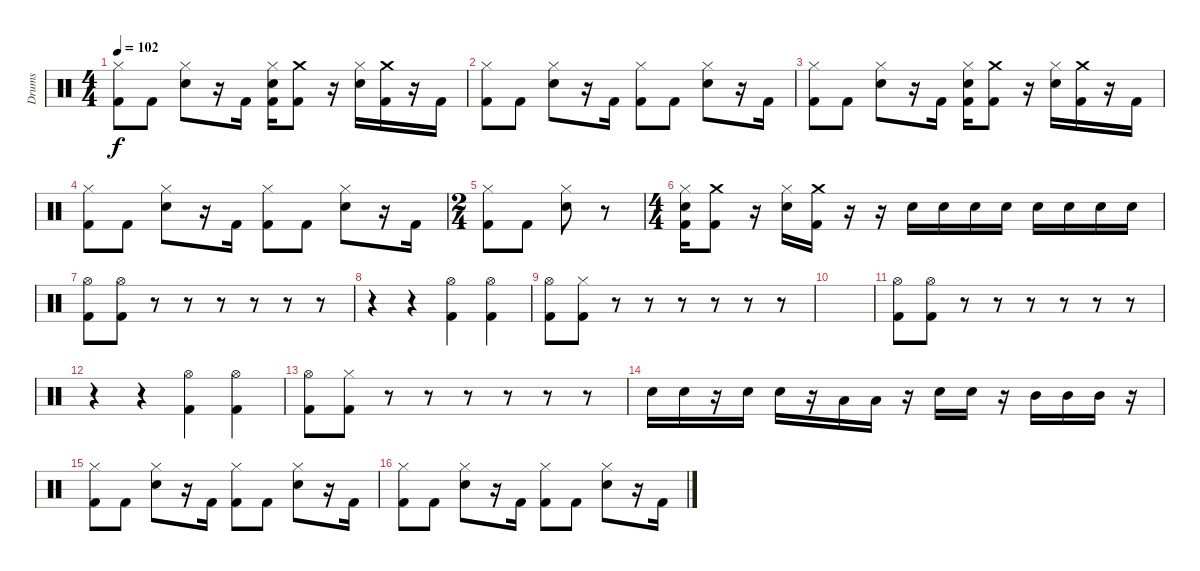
\track ("Drums" "Drums") {instrument percussion}
\staff {score}
\articulation defaults
\ts (4 4)
\tempo 102
\clef neutral
\ks c
("Hi-Hat (closed)" "Kick (hit) 2").8{dy f} "Kick (hit) 2".8 ("Hi-Hat (closed)" "Snare (hit) 2").8 r.16 "Kick (hit) 2".16 ("Hi-Hat (closed)" "Snare (hit) 2" "Kick (hit) 2").16 ("Crash medium (hit)" "Kick (hit) 2").8 r.16 ("Hi-Hat (closed)" "Snare (hit) 2").16 ("Crash medium (hit)" "Kick (hit) 2").16 r.16 "Kick (hit) 2".16 |
("Hi-Hat (closed)" "Kick (hit) 2").8 "Kick (hit) 2".8 ("Hi-Hat (closed)" "Snare (hit) 2").8 r.16 "Kick (hit) 2".16 ("Hi-Hat (closed)" "Kick (hit) 2").8 "Kick (hit) 2".8 ("Hi-Hat (closed)" "Snare (hit) 2").8 r.16 "Kick (hit) 2".16 |
("Hi-Hat (closed)" "Kick (hit) 2").8 "Kick (hit) 2".8 ("Hi-Hat (closed)" "Snare (hit) 2").8 r.16 "Kick (hit) 2".16 ("Hi-Hat (closed)" "Snare (hit) 2" "Kick (hit) 2").16 ("Crash medium (hit)" "Kick (hit) 2").8 r.16 ("Hi-Hat (closed)" "Snare (hit) 2").16 ("Crash medium (hit)" "Kick (hit) 2").16 r.16 "Kick (hit) 2".16 |
("Hi-Hat (closed)" "Kick (hit) 2").8 "Kick (hit) 2".8 ("Hi-Hat (closed)" "Snare (hit) 2").8 r.16 "Kick (hit) 2".16 ("Hi-Hat (closed)" "Kick (hit) 2").8 "Kick (hit) 2".8 ("Hi-Hat (closed)" "Snare (hit) 2").8 r.16 "Kick (hit) 2".16 |
\ts (2 4)
("Hi-Hat (closed)" "Kick (hit) 2").8 "Kick (hit) 2".8 ("Hi-Hat (closed)" "Snare (hit) 2").8 r.8 |
\ts (4 4)
("Hi-Hat (closed)" "Snare (hit) 2" "Kick (hit) 2").16 ("Crash medium (hit)" "Kick (hit) 2").8 r.16 ("Hi-Hat (closed)" "Snare (hit) 2").16 ("Crash medium (hit)" "Kick (hit) 2").16 r.16 r.16 "Snare (hit) 2".16 "Snare (hit) 2".16 "Snare (hit) 2".16 "Snare (hit) 2".16 "Snare (hit) 2".16 "Snare (hit) 2".16 "Snare (hit) 2".16 "Snare (hit) 2".16 |
("Hi-Hat (open)" "Kick (hit) 2").8 ("Hi-Hat (open)" "Kick (hit) 2").8 r.8 r.8 r.8 r.8 r.8 r.8 |
r.4 r.4 ("Hi-Hat (open)" "Kick (hit) 2").4 ("Hi-Hat (open)" "Kick (hit) 2").4 |
("Hi-Hat (open)" "Kick (hit) 2").8 ("Hi-Hat (closed)" "Kick (hit) 2").8 r.8 r.8 r.8 r.8 r.8 r.8 |
|
("Hi-Hat (open)" "Kick (hit) 2").8 ("Hi-Hat (open)" "Kick (hit) 2").8 r.8 r.8 r.8 r.8 r.8 r.8 |
r.4 r.4 ("Hi-Hat (open)" "Kick (hit) 2").4 ("Hi-Hat (open)" "Kick (hit) 2").4 |
("Hi-Hat (open)" "Kick (hit) 2").8 ("Hi-Hat (closed)" "Kick (hit) 2").8 r.8 r.8 r.8 r.8 r.8 r.8 |
"Snare (hit) 2".16 "Snare (hit) 2".16 r.16 "Snare (hit) 2".16 "Snare (hit) 2".16 r.16 "Low Tom (hit)".16 "Low Tom (hit)".16 r.16 "Snare (hit) 2".16 "Snare (hit) 2".16 r.16 "Mid Tom (hit)".16 "Mid Tom (hit)".16 "Mid Tom (hit)".16 r.16 |
("Hi-Hat (closed)" "Kick (hit) 2").8 "Kick (hit) 2".8 ("Hi-Hat (closed)" "Snare (hit) 2").8 r.16 "Kick (hit) 2".16 ("Hi-Hat (closed)" "Kick (hit) 2").8 "Kick (hit) 2".8 ("Hi-Hat (closed)" "Snare (hit) 2").8 r.16 "Kick (hit) 2".16 |
("Hi-Hat (closed)" "Kick (hit) 2").8 "Kick (hit) 2".8 ("Hi-Hat (closed)" "Snare (hit) 2").8 r.16 "Kick (hit) 2".16 ("Hi-Hat (closed)" "Kick (hit) 2").8 "Kick (hit) 2".8 ("Hi-Hat (closed)" "Snare (hit) 2").8 r.16 "Kick (hit) 2".16
